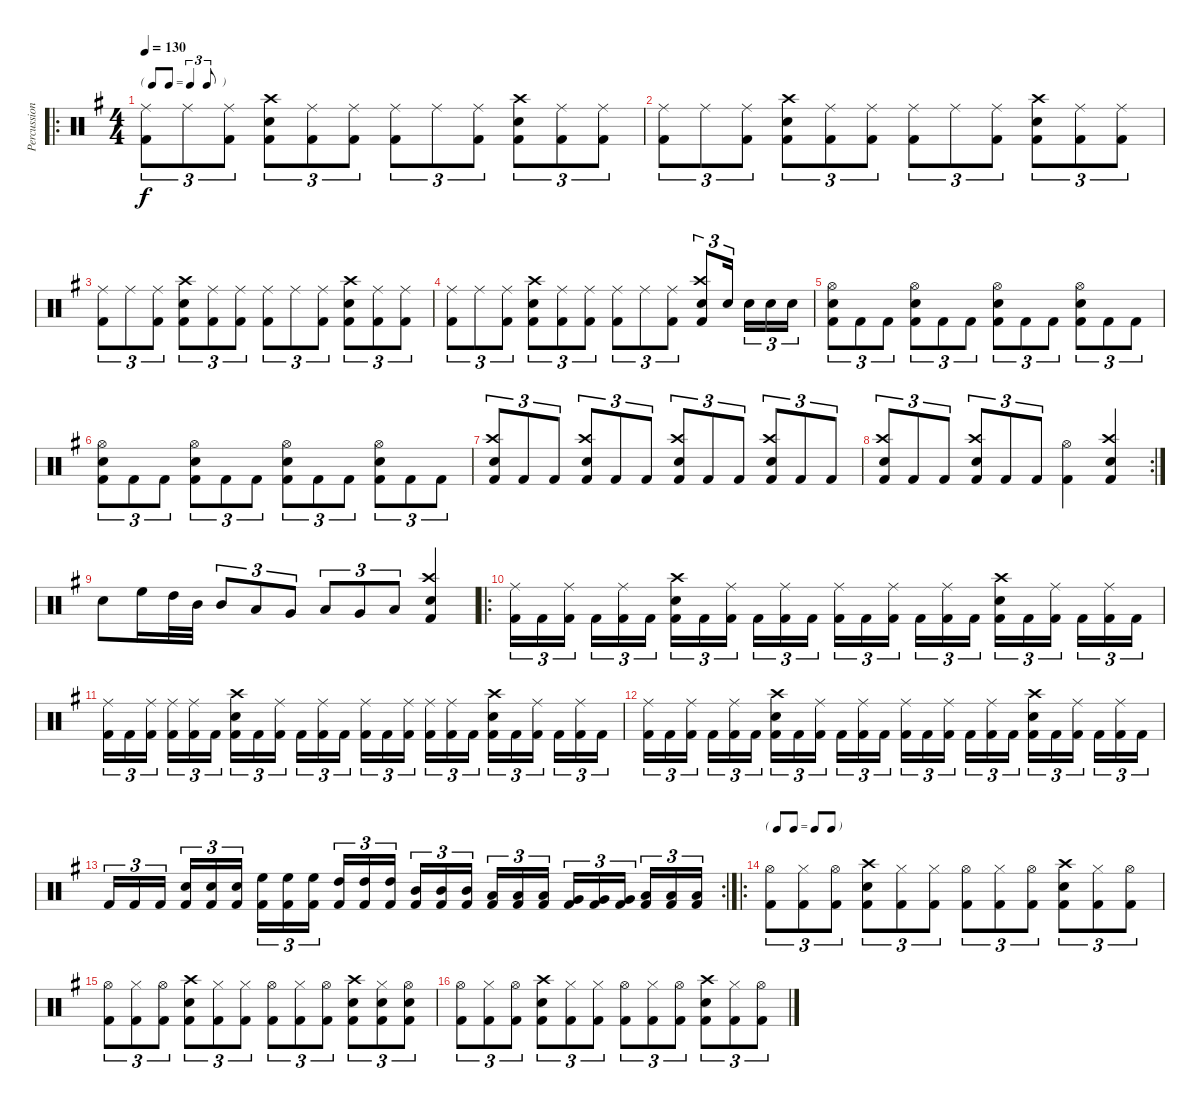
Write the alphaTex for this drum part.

\track ("Percussion" "Percussion") {instrument percussion}
\staff {score}
\articulation defaults
\ro
\ts (4 4)
\tf triplet8th
\tempo 130
\clef neutral
\ks eminor
("Ride (middle)" "Kick (hit) 2").8{tu (3 2) dy f} "Ride (middle)".8{tu (3 2)} ("Ride (middle)" "Kick (hit) 2").8{tu (3 2)} ("Crash high (hit)" "Electric Snare (hit)" "Kick (hit) 2").8{tu (3 2)} ("Ride (middle)" "Kick (hit) 2").8{tu (3 2)} ("Ride (middle)" "Kick (hit) 2").8{tu (3 2)} ("Ride (middle)" "Kick (hit) 2").8{tu (3 2)} "Ride (middle)".8{tu (3 2)} ("Ride (middle)" "Kick (hit) 2").8{tu (3 2)} ("Crash high (hit)" "Electric Snare (hit)" "Kick (hit) 2").8{tu (3 2)} ("Ride (middle)" "Kick (hit) 2").8{tu (3 2)} ("Ride (middle)" "Kick (hit) 2").8{tu (3 2)} |
("Ride (middle)" "Kick (hit) 2").8{tu (3 2)} "Ride (middle)".8{tu (3 2)} ("Ride (middle)" "Kick (hit) 2").8{tu (3 2)} ("Crash high (hit)" "Electric Snare (hit)" "Kick (hit) 2").8{tu (3 2)} ("Ride (middle)" "Kick (hit) 2").8{tu (3 2)} ("Ride (middle)" "Kick (hit) 2").8{tu (3 2)} ("Ride (middle)" "Kick (hit) 2").8{tu (3 2)} "Ride (middle)".8{tu (3 2)} ("Ride (middle)" "Kick (hit) 2").8{tu (3 2)} ("Crash high (hit)" "Electric Snare (hit)" "Kick (hit) 2").8{tu (3 2)} ("Ride (middle)" "Kick (hit) 2").8{tu (3 2)} ("Ride (middle)" "Kick (hit) 2").8{tu (3 2)} |
("Ride (middle)" "Kick (hit) 2").8{tu (3 2)} "Ride (middle)".8{tu (3 2)} ("Ride (middle)" "Kick (hit) 2").8{tu (3 2)} ("Crash high (hit)" "Electric Snare (hit)" "Kick (hit) 2").8{tu (3 2)} ("Ride (middle)" "Kick (hit) 2").8{tu (3 2)} ("Ride (middle)" "Kick (hit) 2").8{tu (3 2)} ("Ride (middle)" "Kick (hit) 2").8{tu (3 2)} "Ride (middle)".8{tu (3 2)} ("Ride (middle)" "Kick (hit) 2").8{tu (3 2)} ("Crash high (hit)" "Electric Snare (hit)" "Kick (hit) 2").8{tu (3 2)} ("Ride (middle)" "Kick (hit) 2").8{tu (3 2)} ("Ride (middle)" "Kick (hit) 2").8{tu (3 2)} |
("Ride (middle)" "Kick (hit) 2").8{tu (3 2)} "Ride (middle)".8{tu (3 2)} ("Ride (middle)" "Kick (hit) 2").8{tu (3 2)} ("Crash high (hit)" "Electric Snare (hit)" "Kick (hit) 2").8{tu (3 2)} ("Ride (middle)" "Kick (hit) 2").8{tu (3 2)} ("Ride (middle)" "Kick (hit) 2").8{tu (3 2)} ("Ride (middle)" "Kick (hit) 2").8{tu (3 2)} "Ride (middle)".8{tu (3 2)} ("Ride (middle)" "Kick (hit) 2").8{tu (3 2)} ("Crash high (hit)" "Electric Snare (hit)" "Kick (hit) 2").8{tu (3 2)} "Electric Snare (hit)".16{tu (3 2) beam splitsecondary} "Electric Snare (hit)".16{tu (3 2)} "Electric Snare (hit)".16{tu (3 2)} "Electric Snare (hit)".16{tu (3 2)} |
("Hi-Hat (open)" "Electric Snare (hit)" "Kick (hit) 2").8{tu (3 2)} "Kick (hit) 2".8{tu (3 2)} "Kick (hit) 2".8{tu (3 2)} ("Hi-Hat (open)" "Electric Snare (hit)" "Kick (hit) 2").8{tu (3 2)} "Kick (hit) 2".8{tu (3 2)} "Kick (hit) 2".8{tu (3 2)} ("Hi-Hat (open)" "Electric Snare (hit)" "Kick (hit) 2").8{tu (3 2)} "Kick (hit) 2".8{tu (3 2)} "Kick (hit) 2".8{tu (3 2)} ("Hi-Hat (open)" "Electric Snare (hit)" "Kick (hit) 2").8{tu (3 2)} "Kick (hit) 2".8{tu (3 2)} "Kick (hit) 2".8{tu (3 2)} |
("Hi-Hat (open)" "Electric Snare (hit)" "Kick (hit) 2").8{tu (3 2)} "Kick (hit) 2".8{tu (3 2)} "Kick (hit) 2".8{tu (3 2)} ("Hi-Hat (open)" "Electric Snare (hit)" "Kick (hit) 2").8{tu (3 2)} "Kick (hit) 2".8{tu (3 2)} "Kick (hit) 2".8{tu (3 2)} ("Hi-Hat (open)" "Electric Snare (hit)" "Kick (hit) 2").8{tu (3 2)} "Kick (hit) 2".8{tu (3 2)} "Kick (hit) 2".8{tu (3 2)} ("Hi-Hat (open)" "Electric Snare (hit)" "Kick (hit) 2").8{tu (3 2)} "Kick (hit) 2".8{tu (3 2)} "Kick (hit) 2".8{tu (3 2)} |
("Crash high (hit)" "Electric Snare (hit)" "Kick (hit) 2").8{tu (3 2)} "Kick (hit) 2".8{tu (3 2)} "Kick (hit) 2".8{tu (3 2)} ("Crash high (hit)" "Electric Snare (hit)" "Kick (hit) 2").8{tu (3 2)} "Kick (hit) 2".8{tu (3 2)} "Kick (hit) 2".8{tu (3 2)} ("Crash high (hit)" "Electric Snare (hit)" "Kick (hit) 2").8{tu (3 2)} "Kick (hit) 2".8{tu (3 2)} "Kick (hit) 2".8{tu (3 2)} ("Crash high (hit)" "Electric Snare (hit)" "Kick (hit) 2").8{tu (3 2)} "Kick (hit) 2".8{tu (3 2)} "Kick (hit) 2".8{tu (3 2)} |
\rc 2
("Crash high (hit)" "Electric Snare (hit)" "Kick (hit) 2").8{tu (3 2)} "Kick (hit) 2".8{tu (3 2)} "Kick (hit) 2".8{tu (3 2)} ("Crash high (hit)" "Electric Snare (hit)" "Kick (hit) 2").8{tu (3 2)} "Kick (hit) 2".8{tu (3 2)} "Kick (hit) 2".8{tu (3 2)} ("Hi-Hat (open)" "Kick (hit) 2").4 ("Crash high (hit)" "Electric Snare (hit)" "Kick (hit) 2").4 |
"Electric Snare (hit)".8 "High Floor Tom (hit)".16 "High Tom (hit)".32 "Mid Tom (hit)".32 "Mid Tom (hit)".8{tu (3 2)} "Low Tom (hit)".8{tu (3 2)} "Very Low Tom (hit)".8{tu (3 2)} "Low Tom (hit)".8{tu (3 2)} "Very Low Tom (hit)".8{tu (3 2)} "Low Floor Tom (hit)".8{tu (3 2)} ("Crash high (hit)" "Electric Snare (hit)" "Kick (hit) 2").4 |
\ro
("Ride (middle)" "Kick (hit) 2").16{tu (3 2)} "Kick (hit) 2".16{tu (3 2)} ("Ride (middle)" "Kick (hit) 2").16{tu (3 2) beam splitsecondary} "Kick (hit) 2".16{tu (3 2)} ("Ride (middle)" "Kick (hit) 2").16{tu (3 2)} "Kick (hit) 2".16{tu (3 2)} ("Crash high (hit)" "Electric Snare (hit)" "Kick (hit) 2").16{tu (3 2)} "Kick (hit) 2".16{tu (3 2)} ("Ride (middle)" "Kick (hit) 2").16{tu (3 2) beam splitsecondary} "Kick (hit) 2".16{tu (3 2)} ("Ride (middle)" "Kick (hit) 2").16{tu (3 2)} "Kick (hit) 2".16{tu (3 2)} ("Ride (middle)" "Kick (hit) 2").16{tu (3 2)} "Kick (hit) 2".16{tu (3 2)} ("Ride (middle)" "Kick (hit) 2").16{tu (3 2) beam splitsecondary} "Kick (hit) 2".16{tu (3 2)} ("Ride (middle)" "Kick (hit) 2").16{tu (3 2)} "Kick (hit) 2".16{tu (3 2)} ("Crash high (hit)" "Electric Snare (hit)" "Kick (hit) 2").16{tu (3 2)} "Kick (hit) 2".16{tu (3 2)} ("Ride (middle)" "Kick (hit) 2").16{tu (3 2) beam splitsecondary} "Kick (hit) 2".16{tu (3 2)} ("Ride (middle)" "Kick (hit) 2").16{tu (3 2)} "Kick (hit) 2".16{tu (3 2)} |
("Ride (middle)" "Kick (hit) 2").16{tu (3 2)} "Kick (hit) 2".16{tu (3 2)} ("Ride (middle)" "Kick (hit) 2").16{tu (3 2) beam splitsecondary} ("Ride (middle)" "Kick (hit) 2").16{tu (3 2)} ("Ride (middle)" "Kick (hit) 2").16{tu (3 2)} "Kick (hit) 2".16{tu (3 2)} ("Crash high (hit)" "Electric Snare (hit)" "Kick (hit) 2").16{tu (3 2)} "Kick (hit) 2".16{tu (3 2)} ("Ride (middle)" "Kick (hit) 2").16{tu (3 2) beam splitsecondary} "Kick (hit) 2".16{tu (3 2)} ("Ride (middle)" "Kick (hit) 2").16{tu (3 2)} "Kick (hit) 2".16{tu (3 2)} ("Ride (middle)" "Kick (hit) 2").16{tu (3 2)} "Kick (hit) 2".16{tu (3 2)} ("Ride (middle)" "Kick (hit) 2").16{tu (3 2) beam splitsecondary} ("Ride (middle)" "Kick (hit) 2").16{tu (3 2)} ("Ride (middle)" "Kick (hit) 2").16{tu (3 2)} "Kick (hit) 2".16{tu (3 2)} ("Crash high (hit)" "Electric Snare (hit)" "Kick (hit) 2").16{tu (3 2)} "Kick (hit) 2".16{tu (3 2)} ("Ride (middle)" "Kick (hit) 2").16{tu (3 2) beam splitsecondary} "Kick (hit) 2".16{tu (3 2)} ("Ride (middle)" "Kick (hit) 2").16{tu (3 2)} "Kick (hit) 2".16{tu (3 2)} |
("Ride (middle)" "Kick (hit) 2").16{tu (3 2)} "Kick (hit) 2".16{tu (3 2)} ("Ride (middle)" "Kick (hit) 2").16{tu (3 2) beam splitsecondary} "Kick (hit) 2".16{tu (3 2)} ("Ride (middle)" "Kick (hit) 2").16{tu (3 2)} "Kick (hit) 2".16{tu (3 2)} ("Crash high (hit)" "Electric Snare (hit)" "Kick (hit) 2").16{tu (3 2)} "Kick (hit) 2".16{tu (3 2)} ("Ride (middle)" "Kick (hit) 2").16{tu (3 2) beam splitsecondary} "Kick (hit) 2".16{tu (3 2)} ("Ride (middle)" "Kick (hit) 2").16{tu (3 2)} "Kick (hit) 2".16{tu (3 2)} ("Ride (middle)" "Kick (hit) 2").16{tu (3 2)} "Kick (hit) 2".16{tu (3 2)} ("Ride (middle)" "Kick (hit) 2").16{tu (3 2) beam splitsecondary} "Kick (hit) 2".16{tu (3 2)} ("Ride (middle)" "Kick (hit) 2").16{tu (3 2)} "Kick (hit) 2".16{tu (3 2)} ("Crash high (hit)" "Electric Snare (hit)" "Kick (hit) 2").16{tu (3 2)} "Kick (hit) 2".16{tu (3 2)} ("Ride (middle)" "Kick (hit) 2").16{tu (3 2) beam splitsecondary} "Kick (hit) 2".16{tu (3 2)} ("Ride (middle)" "Kick (hit) 2").16{tu (3 2)} "Kick (hit) 2".16{tu (3 2)} |
\rc 2 "Kick (hit) 2".16{tu (3 2)} "Kick (hit) 2".16{tu (3 2)} "Kick (hit) 2".16{tu (3 2) beam splitsecondary}
("Electric Snare (hit)" "Kick (hit) 2").16{tu (3 2)} ("Electric Snare (hit)" "Kick (hit) 2").16{tu (3 2)} ("Electric Snare (hit)" "Kick (hit) 2").16{tu (3 2)} ("High Floor Tom (hit)" "Kick (hit) 2").16{tu (3 2)} ("High Floor Tom (hit)" "Kick (hit) 2").16{tu (3 2)} ("High Floor Tom (hit)" "Kick (hit) 2").16{tu (3 2) beam splitsecondary} ("High Tom (hit)" "Kick (hit) 2").16{tu (3 2)} ("High Tom (hit)" "Kick (hit) 2").16{tu (3 2)} ("High Tom (hit)" "Kick (hit) 2").16{tu (3 2)} ("Mid Tom (hit)" "Kick (hit) 2").16{tu (3 2)} ("Mid Tom (hit)" "Kick (hit) 2").16{tu (3 2)} ("Mid Tom (hit)" "Kick (hit) 2").16{tu (3 2) beam splitsecondary} ("Low Tom (hit)" "Kick (hit) 2").16{tu (3 2)} ("Low Tom (hit)" "Kick (hit) 2").16{tu (3 2)} ("Low Tom (hit)" "Kick (hit) 2").16{tu (3 2)} ("Very Low Tom (hit)" "Kick (hit) 2").16{tu (3 2)} ("Very Low Tom (hit)" "Kick (hit) 2").16{tu (3 2)} ("Very Low Tom (hit)" "Kick (hit) 2").16{tu (3 2) beam splitsecondary} ("Low Floor Tom (hit)" "Kick (hit) 2").16{tu (3 2)} ("Low Floor Tom (hit)" "Kick (hit) 2").16{tu (3 2)} ("Low Floor Tom (hit)" "Kick (hit) 2").16{tu (3 2)} |
\ro
\tf none
("Hi-Hat (open)" "Kick (hit) 2").8{tu (3 2)} ("Hi-Hat (closed)" "Kick (hit) 2").8{tu (3 2)} ("Hi-Hat (open)" "Kick (hit) 2").8{tu (3 2)} ("Crash high (hit)" "Electric Snare (hit)" "Kick (hit) 2").8{tu (3 2)} ("Hi-Hat (closed)" "Kick (hit) 2").8{tu (3 2)} ("Hi-Hat (closed)" "Kick (hit) 2").8{tu (3 2)} ("Hi-Hat (open)" "Kick (hit) 2").8{tu (3 2)} ("Hi-Hat (closed)" "Kick (hit) 2").8{tu (3 2)} ("Hi-Hat (open)" "Kick (hit) 2").8{tu (3 2)} ("Crash high (hit)" "Electric Snare (hit)" "Kick (hit) 2").8{tu (3 2)} ("Hi-Hat (closed)" "Kick (hit) 2").8{tu (3 2)} ("Hi-Hat (open)" "Kick (hit) 2").8{tu (3 2)} |
("Hi-Hat (open)" "Kick (hit) 2").8{tu (3 2)} ("Hi-Hat (closed)" "Kick (hit) 2").8{tu (3 2)} ("Hi-Hat (open)" "Kick (hit) 2").8{tu (3 2)} ("Crash high (hit)" "Electric Snare (hit)" "Kick (hit) 2").8{tu (3 2)} ("Hi-Hat (closed)" "Kick (hit) 2").8{tu (3 2)} ("Hi-Hat (closed)" "Kick (hit) 2").8{tu (3 2)} ("Hi-Hat (open)" "Kick (hit) 2").8{tu (3 2)} ("Hi-Hat (closed)" "Kick (hit) 2").8{tu (3 2)} ("Hi-Hat (open)" "Kick (hit) 2").8{tu (3 2)} ("Crash high (hit)" "Electric Snare (hit)" "Kick (hit) 2").8{tu (3 2)} ("Hi-Hat (closed)" "Electric Snare (hit)" "Kick (hit) 2").8{tu (3 2)} ("Hi-Hat (open)" "Electric Snare (hit)" "Kick (hit) 2").8{tu (3 2)} |
("Hi-Hat (open)" "Kick (hit) 2").8{tu (3 2)} ("Hi-Hat (closed)" "Kick (hit) 2").8{tu (3 2)} ("Hi-Hat (open)" "Kick (hit) 2").8{tu (3 2)} ("Crash high (hit)" "Electric Snare (hit)" "Kick (hit) 2").8{tu (3 2)} ("Hi-Hat (closed)" "Kick (hit) 2").8{tu (3 2)} ("Hi-Hat (closed)" "Kick (hit) 2").8{tu (3 2)} ("Hi-Hat (open)" "Kick (hit) 2").8{tu (3 2)} ("Hi-Hat (closed)" "Kick (hit) 2").8{tu (3 2)} ("Hi-Hat (open)" "Kick (hit) 2").8{tu (3 2)} ("Crash high (hit)" "Electric Snare (hit)" "Kick (hit) 2").8{tu (3 2)} ("Hi-Hat (closed)" "Kick (hit) 2").8{tu (3 2)} ("Hi-Hat (open)" "Kick (hit) 2").8{tu (3 2)}
